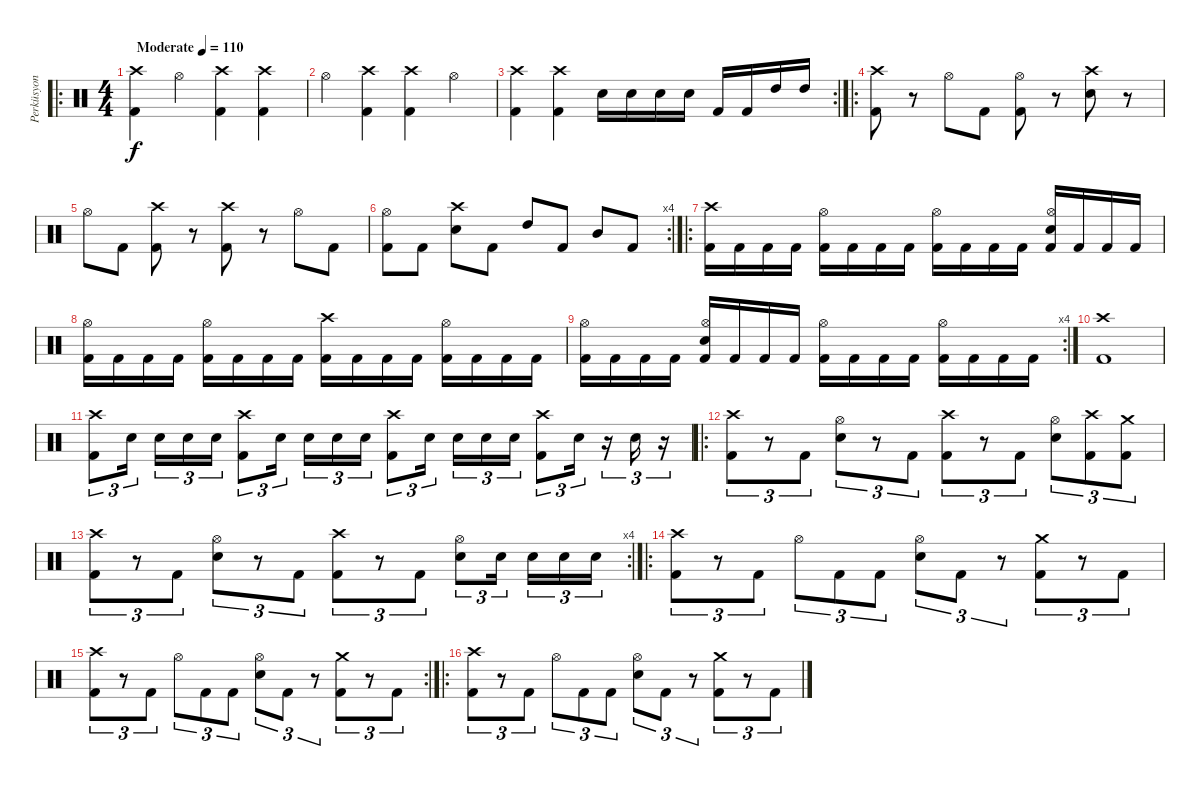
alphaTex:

\track ("Perküsyon" "Perküsyon") {instrument percussion}
\staff {score}
\articulation defaults
\ro
\ts (4 4)
\tempo (110 "Moderate")
\clef neutral
\ks c
("Kick (hit) 2" "Crash high (hit)").4{dy f} "Hi-Hat (open)".4 ("Kick (hit) 2" "Crash high (hit)").4 ("Kick (hit) 2" "Crash high (hit)").4 |
"Hi-Hat (open)".4 ("Crash high (hit)" "Kick (hit) 2").4 ("Crash high (hit)" "Kick (hit) 2").4 "Hi-Hat (open)".4 |
\rc 2
("Crash high (hit)" "Kick (hit) 2").4 ("Crash high (hit)" "Kick (hit) 2").4 "Electric Snare (hit)".16 "Electric Snare (hit)".16 "Electric Snare (hit)".16 "Electric Snare (hit)".16 "Kick (hit) 2".16 "Kick (hit) 2".16 "High Tom (hit)".16 "High Tom (hit)".16 |
\ro
("Crash high (hit)" "Kick (hit) 2").8 r.8 "Hi-Hat (open)".8 "Kick (hit) 2".8 ("Hi-Hat (open)" "Kick (hit) 2").8 r.8 ("Electric Snare (hit)" "Crash high (hit)").8 r.8 |
"Hi-Hat (open)".8 "Kick (hit) 2".8 ("Kick (hit) 2" "Crash high (hit)").8 r.8 ("Kick (hit) 2" "Crash high (hit)").8 r.8 "Hi-Hat (open)".8 "Kick (hit) 2".8 |
\rc 4
("Kick (hit) 2" "Hi-Hat (open)").8 "Kick (hit) 2".8 ("Electric Snare (hit)" "Crash high (hit)").8 "Kick (hit) 2".8 "High Tom (hit)".8 "Kick (hit) 2".8 "Mid Tom (hit)".8 "Kick (hit) 2".8 |
\ro
("Crash high (hit)" "Kick (hit) 2").16 "Kick (hit) 2".16 "Kick (hit) 2".16 "Kick (hit) 2".16 ("Hi-Hat (open)" "Kick (hit) 2").16 "Kick (hit) 2".16 "Kick (hit) 2".16 "Kick (hit) 2".16 ("Hi-Hat (open)" "Kick (hit) 2").16 "Kick (hit) 2".16 "Kick (hit) 2".16 "Kick (hit) 2".16 ("Electric Snare (hit)" "Hi-Hat (open)" "Kick (hit) 2").16 "Kick (hit) 2".16 "Kick (hit) 2".16 "Kick (hit) 2".16 |
("Hi-Hat (open)" "Kick (hit) 2").16 "Kick (hit) 2".16 "Kick (hit) 2".16 "Kick (hit) 2".16 ("Hi-Hat (open)" "Kick (hit) 2").16 "Kick (hit) 2".16 "Kick (hit) 2".16 "Kick (hit) 2".16 ("Crash high (hit)" "Kick (hit) 2").16 "Kick (hit) 2".16 "Kick (hit) 2".16 "Kick (hit) 2".16 ("Hi-Hat (open)" "Kick (hit) 2").16 "Kick (hit) 2".16 "Kick (hit) 2".16 "Kick (hit) 2".16 |
\rc 4
("Hi-Hat (open)" "Kick (hit) 2").16 "Kick (hit) 2".16 "Kick (hit) 2".16 "Kick (hit) 2".16 ("Electric Snare (hit)" "Hi-Hat (open)" "Kick (hit) 2").16 "Kick (hit) 2".16 "Kick (hit) 2".16 "Kick (hit) 2".16 ("Hi-Hat (open)" "Kick (hit) 2").16 "Kick (hit) 2".16 "Kick (hit) 2".16 "Kick (hit) 2".16 ("Hi-Hat (open)" "Kick (hit) 2").16 "Kick (hit) 2".16 "Kick (hit) 2".16 "Kick (hit) 2".16 |
("Kick (hit) 2" "Crash high (hit)").1 |
("Crash high (hit)" "Kick (hit) 2").8{tu (3 2)} "Electric Snare (hit)".16{tu (3 2) beam splitsecondary} "Electric Snare (hit)".16{tu (3 2)} "Electric Snare (hit)".16{tu (3 2)} "Electric Snare (hit)".16{tu (3 2)} ("Crash high (hit)" "Kick (hit) 2").8{tu (3 2)} "Electric Snare (hit)".16{tu (3 2) beam splitsecondary} "Electric Snare (hit)".16{tu (3 2)} "Electric Snare (hit)".16{tu (3 2)} "Electric Snare (hit)".16{tu (3 2)} ("Crash high (hit)" "Kick (hit) 2").8{tu (3 2)} "Electric Snare (hit)".16{tu (3 2) beam splitsecondary} "Electric Snare (hit)".16{tu (3 2)} "Electric Snare (hit)".16{tu (3 2)} "Electric Snare (hit)".16{tu (3 2)} ("Crash high (hit)" "Kick (hit) 2").8{tu (3 2)} "Electric Snare (hit)".16{tu (3 2)} r.16{tu (3 2)} "Electric Snare (hit)".16{tu (3 2)} r.16{tu (3 2)} |
\ro
("Crash high (hit)" "Kick (hit) 2").8{tu (3 2)} r.8{tu (3 2)} "Kick (hit) 2".8{tu (3 2)} ("Hi-Hat (open)" "Electric Snare (hit)").8{tu (3 2)} r.8{tu (3 2)} "Kick (hit) 2".8{tu (3 2)} ("Crash high (hit)" "Kick (hit) 2").8{tu (3 2)} r.8{tu (3 2)} "Kick (hit) 2".8{tu (3 2)} ("Hi-Hat (open)" "Electric Snare (hit)").8{tu (3 2)} ("Kick (hit) 2" "Crash high (hit)").8{tu (3 2)} ("Crash medium (hit)" "Kick (hit) 2").8{tu (3 2)} |
\rc 4
("Crash high (hit)" "Kick (hit) 2").8{tu (3 2)} r.8{tu (3 2)} "Kick (hit) 2".8{tu (3 2)} ("Hi-Hat (open)" "Electric Snare (hit)").8{tu (3 2)} r.8{tu (3 2)} "Kick (hit) 2".8{tu (3 2)} ("Crash high (hit)" "Kick (hit) 2").8{tu (3 2)} r.8{tu (3 2)} "Kick (hit) 2".8{tu (3 2)} ("Hi-Hat (open)" "Electric Snare (hit)").8{tu (3 2)} "Electric Snare (hit)".16{tu (3 2) beam splitsecondary} "Electric Snare (hit)".16{tu (3 2)} "Electric Snare (hit)".16{tu (3 2)} "Electric Snare (hit)".16{tu (3 2)} |
\ro
("Kick (hit) 2" "Crash high (hit)").8{tu (3 2)} r.8{tu (3 2)} "Kick (hit) 2".8{tu (3 2)} "Hi-Hat (open)".8{tu (3 2)} "Kick (hit) 2".8{tu (3 2)} "Kick (hit) 2".8{tu (3 2)} ("Electric Snare (hit)" "Hi-Hat (open)").8{tu (3 2)} "Kick (hit) 2".8{tu (3 2)} r.8{tu (3 2)} ("Kick (hit) 2" "Crash medium (hit)").8{tu (3 2)} r.8{tu (3 2)} "Kick (hit) 2".8{tu (3 2)} |
\rc 2
("Kick (hit) 2" "Crash high (hit)").8{tu (3 2)} r.8{tu (3 2)} "Kick (hit) 2".8{tu (3 2)} "Hi-Hat (open)".8{tu (3 2)} "Kick (hit) 2".8{tu (3 2)} "Kick (hit) 2".8{tu (3 2)} ("Electric Snare (hit)" "Hi-Hat (open)").8{tu (3 2)} "Kick (hit) 2".8{tu (3 2)} r.8{tu (3 2)} ("Kick (hit) 2" "Crash medium (hit)").8{tu (3 2)} r.8{tu (3 2)} "Kick (hit) 2".8{tu (3 2)} |
\ro
("Kick (hit) 2" "Crash high (hit)").8{tu (3 2)} r.8{tu (3 2)} "Kick (hit) 2".8{tu (3 2)} "Hi-Hat (open)".8{tu (3 2)} "Kick (hit) 2".8{tu (3 2)} "Kick (hit) 2".8{tu (3 2)} ("Electric Snare (hit)" "Hi-Hat (open)").8{tu (3 2)} "Kick (hit) 2".8{tu (3 2)} r.8{tu (3 2)} ("Kick (hit) 2" "Crash medium (hit)").8{tu (3 2)} r.8{tu (3 2)} "Kick (hit) 2".8{tu (3 2)}
